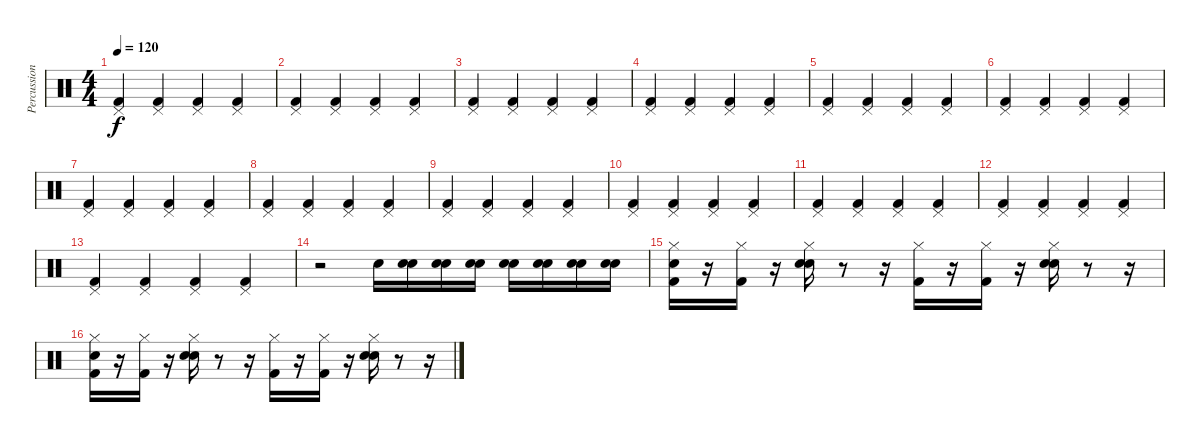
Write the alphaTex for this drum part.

\track ("Percussions" "Percussion") {instrument percussion}
\staff {score}
\articulation defaults
\ts (4 4)
\tempo 120
\clef neutral
\ks c
("Pedal Hi-Hat (hit)" "Kick (hit) 2").4{dy f} ("Pedal Hi-Hat (hit)" "Kick (hit) 2").4 ("Pedal Hi-Hat (hit)" "Kick (hit) 2").4 ("Pedal Hi-Hat (hit)" "Kick (hit) 2").4 |
("Pedal Hi-Hat (hit)" "Kick (hit) 2").4 ("Pedal Hi-Hat (hit)" "Kick (hit) 2").4 ("Pedal Hi-Hat (hit)" "Kick (hit) 2").4 ("Pedal Hi-Hat (hit)" "Kick (hit) 2").4 |
("Pedal Hi-Hat (hit)" "Kick (hit) 2").4 ("Pedal Hi-Hat (hit)" "Kick (hit) 2").4 ("Pedal Hi-Hat (hit)" "Kick (hit) 2").4 ("Pedal Hi-Hat (hit)" "Kick (hit) 2").4 |
("Pedal Hi-Hat (hit)" "Kick (hit) 2").4 ("Pedal Hi-Hat (hit)" "Kick (hit) 2").4 ("Pedal Hi-Hat (hit)" "Kick (hit) 2").4 ("Pedal Hi-Hat (hit)" "Kick (hit) 2").4 |
("Pedal Hi-Hat (hit)" "Kick (hit) 2").4 ("Pedal Hi-Hat (hit)" "Kick (hit) 2").4 ("Pedal Hi-Hat (hit)" "Kick (hit) 2").4 ("Pedal Hi-Hat (hit)" "Kick (hit) 2").4 |
("Pedal Hi-Hat (hit)" "Kick (hit) 2").4 ("Pedal Hi-Hat (hit)" "Kick (hit) 2").4 ("Pedal Hi-Hat (hit)" "Kick (hit) 2").4 ("Pedal Hi-Hat (hit)" "Kick (hit) 2").4 |
("Pedal Hi-Hat (hit)" "Kick (hit) 2").4 ("Pedal Hi-Hat (hit)" "Kick (hit) 2").4 ("Pedal Hi-Hat (hit)" "Kick (hit) 2").4 ("Pedal Hi-Hat (hit)" "Kick (hit) 2").4 |
("Pedal Hi-Hat (hit)" "Kick (hit) 2").4 ("Pedal Hi-Hat (hit)" "Kick (hit) 2").4 ("Pedal Hi-Hat (hit)" "Kick (hit) 2").4 ("Pedal Hi-Hat (hit)" "Kick (hit) 2").4 |
("Pedal Hi-Hat (hit)" "Kick (hit) 2").4 ("Pedal Hi-Hat (hit)" "Kick (hit) 2").4 ("Pedal Hi-Hat (hit)" "Kick (hit) 2").4 ("Pedal Hi-Hat (hit)" "Kick (hit) 2").4 |
("Pedal Hi-Hat (hit)" "Kick (hit) 2").4 ("Pedal Hi-Hat (hit)" "Kick (hit) 2").4 ("Pedal Hi-Hat (hit)" "Kick (hit) 2").4 ("Pedal Hi-Hat (hit)" "Kick (hit) 2").4 |
("Pedal Hi-Hat (hit)" "Kick (hit) 2").4 ("Pedal Hi-Hat (hit)" "Kick (hit) 2").4 ("Pedal Hi-Hat (hit)" "Kick (hit) 2").4 ("Pedal Hi-Hat (hit)" "Kick (hit) 2").4 |
("Pedal Hi-Hat (hit)" "Kick (hit) 2").4 ("Pedal Hi-Hat (hit)" "Kick (hit) 2").4 ("Pedal Hi-Hat (hit)" "Kick (hit) 2").4 ("Pedal Hi-Hat (hit)" "Kick (hit) 2").4 |
("Pedal Hi-Hat (hit)" "Kick (hit) 2").4 ("Pedal Hi-Hat (hit)" "Kick (hit) 2").4 ("Pedal Hi-Hat (hit)" "Kick (hit) 2").4 ("Pedal Hi-Hat (hit)" "Kick (hit) 2").4 |
r.2 "Snare (hit) 2".16 ("Snare (hit)" "Snare (hit) 2").16 ("Snare (hit)" "Snare (hit) 2").16 ("Snare (hit)" "Snare (hit) 2").16 ("Snare (hit)" "Snare (hit) 2").16 ("Snare (hit)" "Snare (hit) 2").16 ("Snare (hit)" "Snare (hit) 2").16 ("Snare (hit)" "Snare (hit) 2").16 |
("Snare (hit)" "Kick (hit) 2" "Hi-Hat (closed)").16 r.16 ("Kick (hit) 2" "Hi-Hat (closed)").16 r.16 ("Hand Clap (hit)" "Hi-Hat (closed)" "Snare (hit) 2").16 r.8 r.16 ("Hi-Hat (closed)" "Kick (hit) 2").16 r.16 ("Hi-Hat (closed)" "Kick (hit) 2").16 r.16 ("Snare (hit) 2" "Hand Clap (hit)" "Hi-Hat (closed)").16 r.8 r.16 |
("Snare (hit)" "Kick (hit) 2" "Hi-Hat (closed)").16 r.16 ("Kick (hit) 2" "Hi-Hat (closed)").16 r.16 ("Hand Clap (hit)" "Hi-Hat (closed)" "Snare (hit) 2").16 r.8 r.16 ("Hi-Hat (closed)" "Kick (hit) 2").16 r.16 ("Hi-Hat (closed)" "Kick (hit) 2").16 r.16 ("Snare (hit) 2" "Hand Clap (hit)" "Hi-Hat (closed)").16 r.8 r.16
